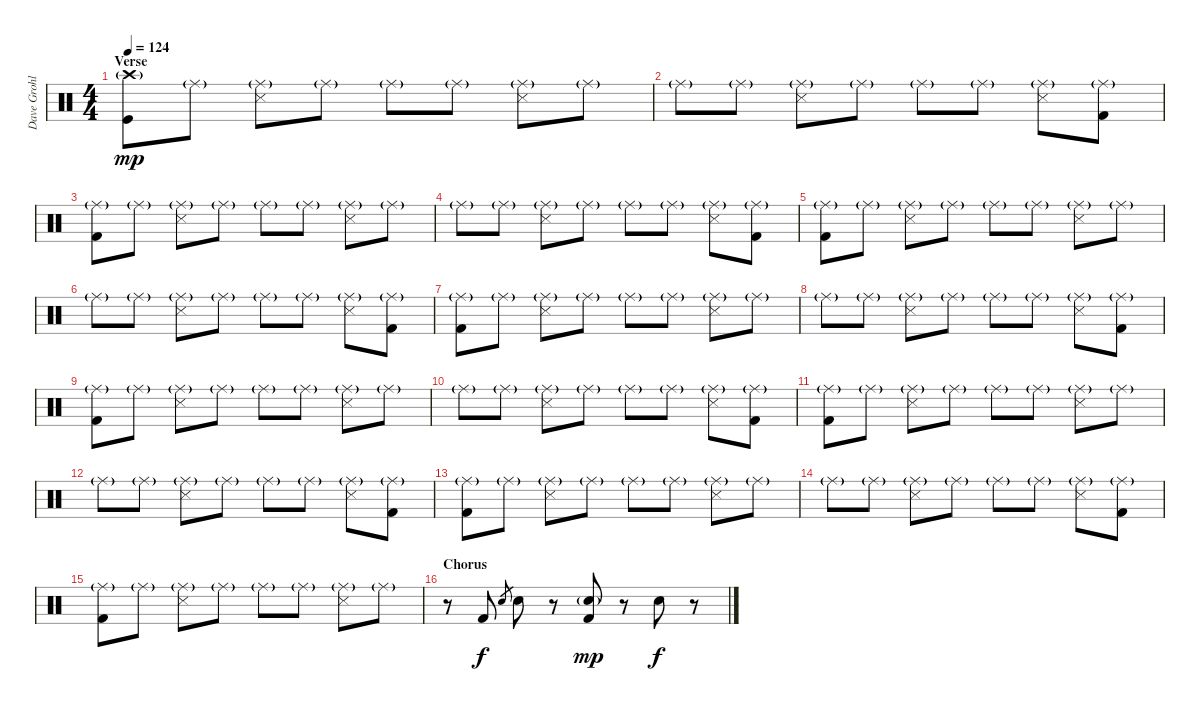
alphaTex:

\track ("Dave Grohl" "Dave Grohl") {instrument percussion}
\staff {score}
\articulation defaults
\ts (4 4)
\section ("" "Verse")
\tempo 124
\clef neutral
\ks c
("Crash high (hit)"{g} "Kick (hit)").8{dy mp} "Ride (middle)"{g}.8 ("Ride (middle)"{g} "Snare (side stick) 3").8 "Ride (middle)"{g}.8 "Ride (middle)"{g}.8 "Ride (middle)"{g}.8 ("Ride (middle)"{g} "Snare (side stick) 3").8 "Ride (middle)"{g}.8 |
"Ride (middle)"{g}.8 "Ride (middle)"{g}.8 ("Ride (middle)"{g} "Snare (side stick) 3").8 "Ride (middle)"{g}.8 "Ride (middle)"{g}.8 "Ride (middle)"{g}.8 ("Ride (middle)"{g} "Snare (side stick) 3").8 ("Ride (middle)"{g} "Kick (hit) 2").8 |
("Ride (middle)"{g} "Kick (hit) 2").8 "Ride (middle)"{g}.8 ("Ride (middle)"{g} "Snare (side stick) 3").8 "Ride (middle)"{g}.8 "Ride (middle)"{g}.8 "Ride (middle)"{g}.8 ("Ride (middle)"{g} "Snare (side stick) 3").8 "Ride (middle)"{g}.8 |
"Ride (middle)"{g}.8 "Ride (middle)"{g}.8 ("Ride (middle)"{g} "Snare (side stick) 3").8 "Ride (middle)"{g}.8 "Ride (middle)"{g}.8 "Ride (middle)"{g}.8 ("Ride (middle)"{g} "Snare (side stick) 3").8 ("Ride (middle)"{g} "Kick (hit) 2").8 |
("Ride (middle)"{g} "Kick (hit) 2").8 "Ride (middle)"{g}.8 ("Ride (middle)"{g} "Snare (side stick) 3").8 "Ride (middle)"{g}.8 "Ride (middle)"{g}.8 "Ride (middle)"{g}.8 ("Ride (middle)"{g} "Snare (side stick) 3").8 "Ride (middle)"{g}.8 |
"Ride (middle)"{g}.8 "Ride (middle)"{g}.8 ("Ride (middle)"{g} "Snare (side stick) 3").8 "Ride (middle)"{g}.8 "Ride (middle)"{g}.8 "Ride (middle)"{g}.8 ("Ride (middle)"{g} "Snare (side stick) 3").8 ("Ride (middle)"{g} "Kick (hit) 2").8 |
("Ride (middle)"{g} "Kick (hit) 2").8 "Ride (middle)"{g}.8 ("Ride (middle)"{g} "Snare (side stick) 3").8 "Ride (middle)"{g}.8 "Ride (middle)"{g}.8 "Ride (middle)"{g}.8 ("Ride (middle)"{g} "Snare (side stick) 3").8 "Ride (middle)"{g}.8 |
"Ride (middle)"{g}.8 "Ride (middle)"{g}.8 ("Ride (middle)"{g} "Snare (side stick) 3").8 "Ride (middle)"{g}.8 "Ride (middle)"{g}.8 "Ride (middle)"{g}.8 ("Ride (middle)"{g} "Snare (side stick) 3").8 ("Ride (middle)"{g} "Kick (hit) 2").8 |
("Ride (middle)"{g} "Kick (hit) 2").8 "Ride (middle)"{g}.8 ("Ride (middle)"{g} "Snare (side stick) 3").8 "Ride (middle)"{g}.8 "Ride (middle)"{g}.8 "Ride (middle)"{g}.8 ("Ride (middle)"{g} "Snare (side stick) 3").8 "Ride (middle)"{g}.8 |
"Ride (middle)"{g}.8 "Ride (middle)"{g}.8 ("Ride (middle)"{g} "Snare (side stick) 3").8 "Ride (middle)"{g}.8 "Ride (middle)"{g}.8 "Ride (middle)"{g}.8 ("Ride (middle)"{g} "Snare (side stick) 3").8 ("Ride (middle)"{g} "Kick (hit) 2").8 |
("Ride (middle)"{g} "Kick (hit) 2").8 "Ride (middle)"{g}.8 ("Ride (middle)"{g} "Snare (side stick) 3").8 "Ride (middle)"{g}.8 "Ride (middle)"{g}.8 "Ride (middle)"{g}.8 ("Ride (middle)"{g} "Snare (side stick) 3").8 "Ride (middle)"{g}.8 |
"Ride (middle)"{g}.8 "Ride (middle)"{g}.8 ("Ride (middle)"{g} "Snare (side stick) 3").8 "Ride (middle)"{g}.8 "Ride (middle)"{g}.8 "Ride (middle)"{g}.8 ("Ride (middle)"{g} "Snare (side stick) 3").8 ("Ride (middle)"{g} "Kick (hit) 2").8 |
("Ride (middle)"{g} "Kick (hit) 2").8 "Ride (middle)"{g}.8 ("Ride (middle)"{g} "Snare (side stick) 3").8 "Ride (middle)"{g}.8 "Ride (middle)"{g}.8 "Ride (middle)"{g}.8 ("Ride (middle)"{g} "Snare (side stick) 3").8 "Ride (middle)"{g}.8 |
"Ride (middle)"{g}.8 "Ride (middle)"{g}.8 ("Ride (middle)"{g} "Snare (side stick) 3").8 "Ride (middle)"{g}.8 "Ride (middle)"{g}.8 "Ride (middle)"{g}.8 ("Ride (middle)"{g} "Snare (side stick) 3").8 ("Ride (middle)"{g} "Kick (hit) 2").8 |
("Ride (middle)"{g} "Kick (hit) 2").8 "Ride (middle)"{g}.8 ("Ride (middle)"{g} "Snare (side stick) 3").8 "Ride (middle)"{g}.8 "Ride (middle)"{g}.8 "Ride (middle)"{g}.8 ("Ride (middle)"{g} "Snare (side stick) 3").8 "Ride (middle)"{g}.8 |
\section ("" "Chorus")
r.8 "Kick (hit) 2".8{dy f} "Electric Snare (hit)".8{gr} "Electric Snare (hit)".8 r.8 ("Snare (hit) 2"{g} "Kick (hit) 2").8{dy mp} r.8 "Electric Snare (hit)".8{dy f} r.8
